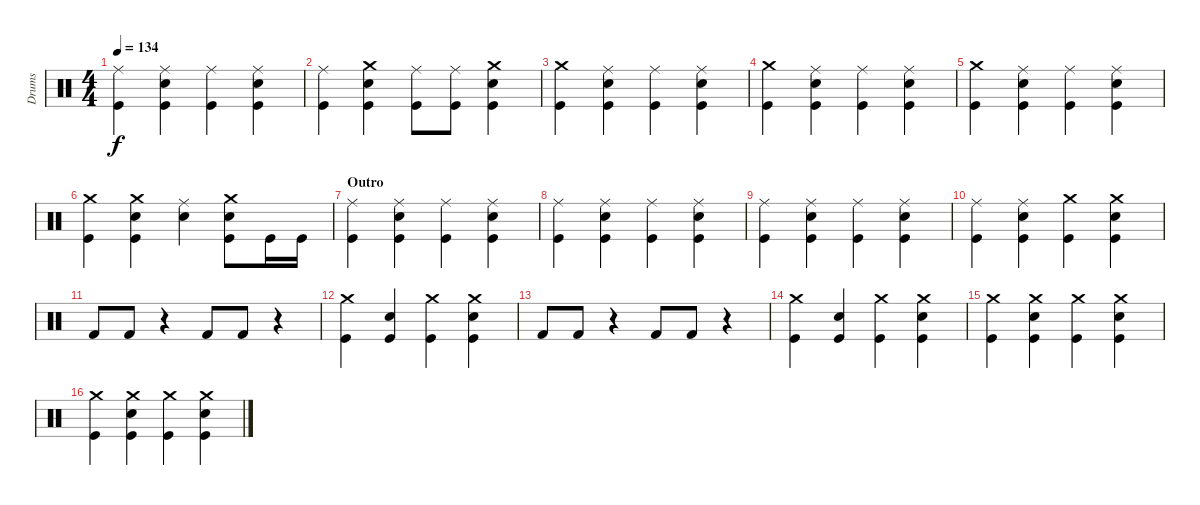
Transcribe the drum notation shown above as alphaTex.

\track ("Drums" "Drums") {solo instrument percussion}
\staff {score}
\articulation defaults
\ts (4 4)
\tempo 134
\clef neutral
\ks c
("Ride (middle)" "Kick (hit)").4{dy f} ("Ride (middle)" "Kick (hit)" "Snare (hit) 2").4 ("Ride (middle)" "Kick (hit)").4 ("Ride (middle)" "Kick (hit)" "Snare (hit) 2").4 |
("Ride (middle)" "Kick (hit)").4 ("Crash medium (hit)" "Kick (hit)" "Snare (hit) 2").4 ("Ride (middle)" "Kick (hit)").8 ("Ride (middle)" "Kick (hit)").8 ("Crash medium (hit)" "Kick (hit)" "Snare (hit) 2").4 |
("Crash medium (hit)" "Kick (hit)").4 ("Ride (middle)" "Kick (hit)" "Snare (hit) 2").4 ("Ride (middle)" "Kick (hit)").4 ("Ride (middle)" "Kick (hit)" "Snare (hit) 2").4 |
("Crash medium (hit)" "Kick (hit)").4 ("Ride (middle)" "Kick (hit)" "Snare (hit) 2").4 ("Ride (middle)" "Kick (hit)").4 ("Ride (middle)" "Kick (hit)" "Snare (hit) 2").4 |
("Crash medium (hit)" "Kick (hit)").4 ("Ride (middle)" "Kick (hit)" "Snare (hit) 2").4 ("Ride (middle)" "Kick (hit)").4 ("Ride (middle)" "Kick (hit)" "Snare (hit) 2").4 |
("Crash medium (hit)" "Kick (hit)").4 ("Crash medium (hit)" "Kick (hit)" "Snare (hit) 2").4 ("Ride (middle)" "Snare (hit) 2").4 ("Crash medium (hit)" "Kick (hit)" "Snare (hit) 2").8 "Kick (hit)".16 "Kick (hit)".16 |
\section ("" "Outro")
("Ride (middle)" "Kick (hit)").4 ("Ride (middle)" "Kick (hit)" "Snare (hit) 2").4 ("Ride (middle)" "Kick (hit)").4 ("Ride (middle)" "Kick (hit)" "Snare (hit) 2").4 |
("Ride (middle)" "Kick (hit)").4 ("Ride (middle)" "Kick (hit)" "Snare (hit) 2").4 ("Ride (middle)" "Kick (hit)").4 ("Ride (middle)" "Kick (hit)" "Snare (hit) 2").4 |
("Ride (middle)" "Kick (hit)").4 ("Ride (middle)" "Kick (hit)" "Snare (hit) 2").4 ("Ride (middle)" "Kick (hit)").4 ("Ride (middle)" "Kick (hit)" "Snare (hit) 2").4 |
("Ride (middle)" "Kick (hit)").4 ("Ride (middle)" "Kick (hit)" "Snare (hit) 2").4 ("Crash medium (hit)" "Kick (hit)").4 ("Crash medium (hit)" "Kick (hit)" "Snare (hit) 2").4 |
"Kick (hit) 2".8 "Kick (hit) 2".8 r.4 "Kick (hit) 2".8 "Kick (hit) 2".8 r.4 |
("Crash medium (hit)" "Kick (hit)").4 ("Kick (hit)" "Snare (hit) 2").4 ("Crash medium (hit)" "Kick (hit)").4 ("Crash medium (hit)" "Kick (hit)" "Snare (hit) 2").4 |
"Kick (hit) 2".8 "Kick (hit) 2".8 r.4 "Kick (hit) 2".8 "Kick (hit) 2".8 r.4 |
("Crash medium (hit)" "Kick (hit)").4 ("Kick (hit)" "Snare (hit) 2").4 ("Crash medium (hit)" "Kick (hit)").4 ("Crash medium (hit)" "Kick (hit)" "Snare (hit) 2").4 |
("Crash medium (hit)" "Kick (hit)").4 ("Crash medium (hit)" "Kick (hit)" "Snare (hit) 2").4 ("Crash medium (hit)" "Kick (hit)").4 ("Crash medium (hit)" "Kick (hit)" "Snare (hit) 2").4 |
("Crash medium (hit)" "Kick (hit)").4 ("Crash medium (hit)" "Kick (hit)" "Snare (hit) 2").4 ("Crash medium (hit)" "Kick (hit)").4 ("Crash medium (hit)" "Kick (hit)" "Snare (hit) 2").4
